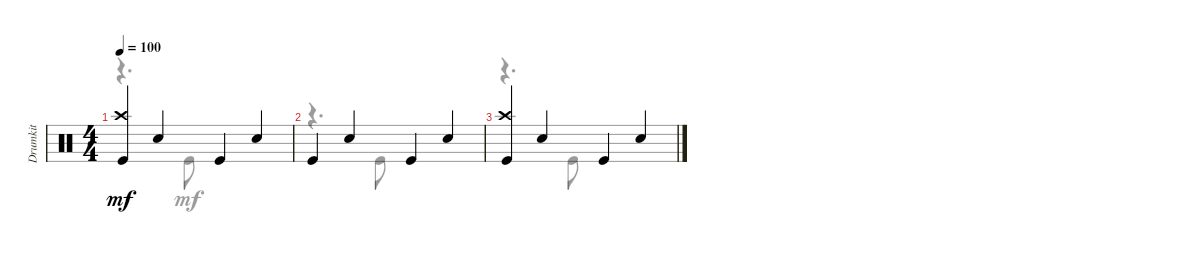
\track ("Drumkit" "Drumkit") {instrument percussion}
\staff {score}
\articulation defaults
\voice
\ts (4 4)
\tempo 100
\clef neutral
\ks aminor
("Crash high (hit)" "Kick (hit)").4{dy mf} "Electric Snare (hit)".4 "Kick (hit)".4 "Electric Snare (hit)".4 |
"Kick (hit)".4 "Electric Snare (hit)".4 "Kick (hit)".4 "Electric Snare (hit)".4 |
("Kick (hit)" "Crash high (hit)").4 "Electric Snare (hit)".4 "Kick (hit)".4 "Electric Snare (hit)".4
\voice
\clef neutral
\ottava regular
\simile none
\ks aminor
r.4{d dy mf} "Kick (hit)".8 |
r.4{d} "Kick (hit)".8 |
r.4{d} "Kick (hit)".8
